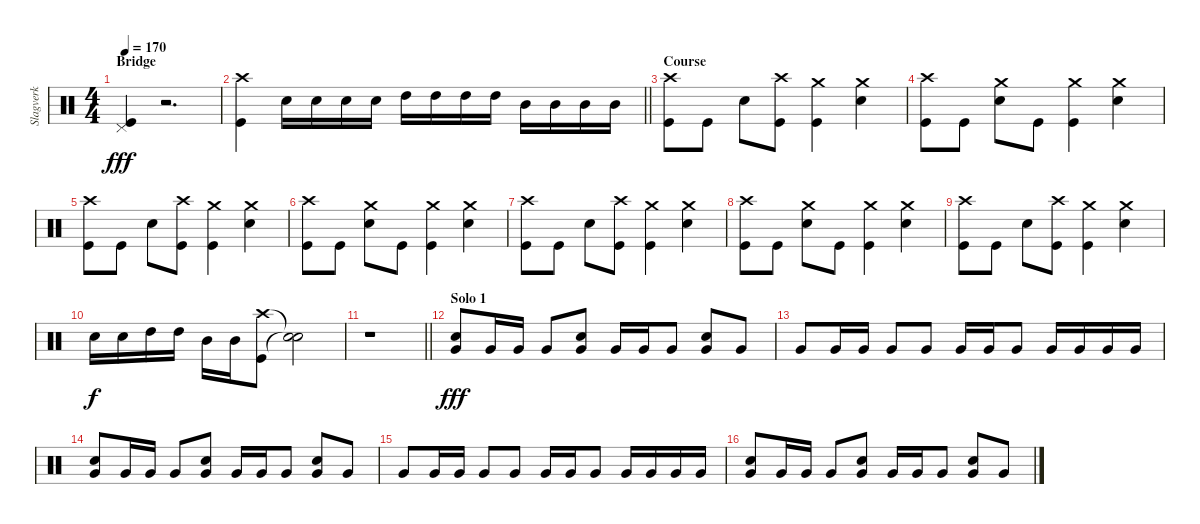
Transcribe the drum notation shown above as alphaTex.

\track ("Slagverk" "Slagverk") {instrument percussion}
\staff {score}
\articulation defaults
\ts (4 4)
\section ("" "Bridge")
\tempo 170
\clef neutral
\ks c
("Pedal Hi-Hat (hit)" "Kick (hit)").4{dy fff} r.2{d} |
\barLineRight lightlight
("Crash high (hit)" "Kick (hit)").4 "Electric Snare (hit)".16 "Electric Snare (hit)".16 "Electric Snare (hit)".16 "Electric Snare (hit)".16 "High Tom (hit)".16 "High Tom (hit)".16 "High Tom (hit)".16 "High Tom (hit)".16 "Mid Tom (hit)".16 "Mid Tom (hit)".16 "Mid Tom (hit)".16 "Mid Tom (hit)".16 |
\section ("" "Course")
("Crash high (hit)" "Kick (hit)").8 "Kick (hit)".8 "Electric Snare (hit)".8 ("Crash high (hit)" "Kick (hit)").8 ("Crash medium (hit)" "Kick (hit)").4 ("Crash medium (hit)" "Electric Snare (hit)").4 |
("Crash high (hit)" "Kick (hit)").8 "Kick (hit)".8 ("Crash medium (hit)" "Electric Snare (hit)").8 "Kick (hit)".8 ("Crash medium (hit)" "Kick (hit)").4 ("Crash medium (hit)" "Electric Snare (hit)").4 |
("Crash high (hit)" "Kick (hit)").8 "Kick (hit)".8 "Electric Snare (hit)".8 ("Crash high (hit)" "Kick (hit)").8 ("Crash medium (hit)" "Kick (hit)").4 ("Crash medium (hit)" "Electric Snare (hit)").4 |
("Crash high (hit)" "Kick (hit)").8 "Kick (hit)".8 ("Crash medium (hit)" "Electric Snare (hit)").8 "Kick (hit)".8 ("Crash medium (hit)" "Kick (hit)").4 ("Crash medium (hit)" "Electric Snare (hit)").4 |
("Crash high (hit)" "Kick (hit)").8 "Kick (hit)".8 "Electric Snare (hit)".8 ("Crash high (hit)" "Kick (hit)").8 ("Crash medium (hit)" "Kick (hit)").4 ("Crash medium (hit)" "Electric Snare (hit)").4 |
("Crash high (hit)" "Kick (hit)").8 "Kick (hit)".8 ("Crash medium (hit)" "Electric Snare (hit)").8 "Kick (hit)".8 ("Crash medium (hit)" "Kick (hit)").4 ("Crash medium (hit)" "Electric Snare (hit)").4 |
("Crash high (hit)" "Kick (hit)").8 "Kick (hit)".8 "Electric Snare (hit)".8 ("Crash high (hit)" "Kick (hit)").8 ("Crash medium (hit)" "Kick (hit)").4 ("Crash medium (hit)" "Electric Snare (hit)").4 |
"Electric Snare (hit)".16{dy f} "Electric Snare (hit)".16 "High Tom (hit)".16 "High Tom (hit)".16 "Mid Tom (hit)".16 "Mid Tom (hit)".16 ("Crash high (hit)" "Kick (hit)").8 ("Snare (hit)"{t} "Snare (hit)"{t}).2 |
\barLineRight lightlight
r.1 |
\section ("" "Solo 1")
("Electric Snare (hit)" "Very Low Tom (hit)").8{dy fff} "Very Low Tom (hit)".16 "Very Low Tom (hit)".16 "Very Low Tom (hit)".8 ("Electric Snare (hit)" "Very Low Tom (hit)").8 "Very Low Tom (hit)".16 "Very Low Tom (hit)".16 "Very Low Tom (hit)".8 ("Electric Snare (hit)" "Very Low Tom (hit)").8 "Very Low Tom (hit)".8 |
"Very Low Tom (hit)".8 "Very Low Tom (hit)".16 "Very Low Tom (hit)".16 "Very Low Tom (hit)".8 "Very Low Tom (hit)".8 "Very Low Tom (hit)".16 "Very Low Tom (hit)".16 "Very Low Tom (hit)".8 "Very Low Tom (hit)".16 "Very Low Tom (hit)".16 "Very Low Tom (hit)".16 "Very Low Tom (hit)".16 |
("Electric Snare (hit)" "Very Low Tom (hit)").8 "Very Low Tom (hit)".16 "Very Low Tom (hit)".16 "Very Low Tom (hit)".8 ("Electric Snare (hit)" "Very Low Tom (hit)").8 "Very Low Tom (hit)".16 "Very Low Tom (hit)".16 "Very Low Tom (hit)".8 ("Electric Snare (hit)" "Very Low Tom (hit)").8 "Very Low Tom (hit)".8 |
"Very Low Tom (hit)".8 "Very Low Tom (hit)".16 "Very Low Tom (hit)".16 "Very Low Tom (hit)".8 "Very Low Tom (hit)".8 "Very Low Tom (hit)".16 "Very Low Tom (hit)".16 "Very Low Tom (hit)".8 "Very Low Tom (hit)".16 "Very Low Tom (hit)".16 "Very Low Tom (hit)".16 "Very Low Tom (hit)".16 |
("Electric Snare (hit)" "Very Low Tom (hit)").8 "Very Low Tom (hit)".16 "Very Low Tom (hit)".16 "Very Low Tom (hit)".8 ("Electric Snare (hit)" "Very Low Tom (hit)").8 "Very Low Tom (hit)".16 "Very Low Tom (hit)".16 "Very Low Tom (hit)".8 ("Electric Snare (hit)" "Very Low Tom (hit)").8 "Very Low Tom (hit)".8
